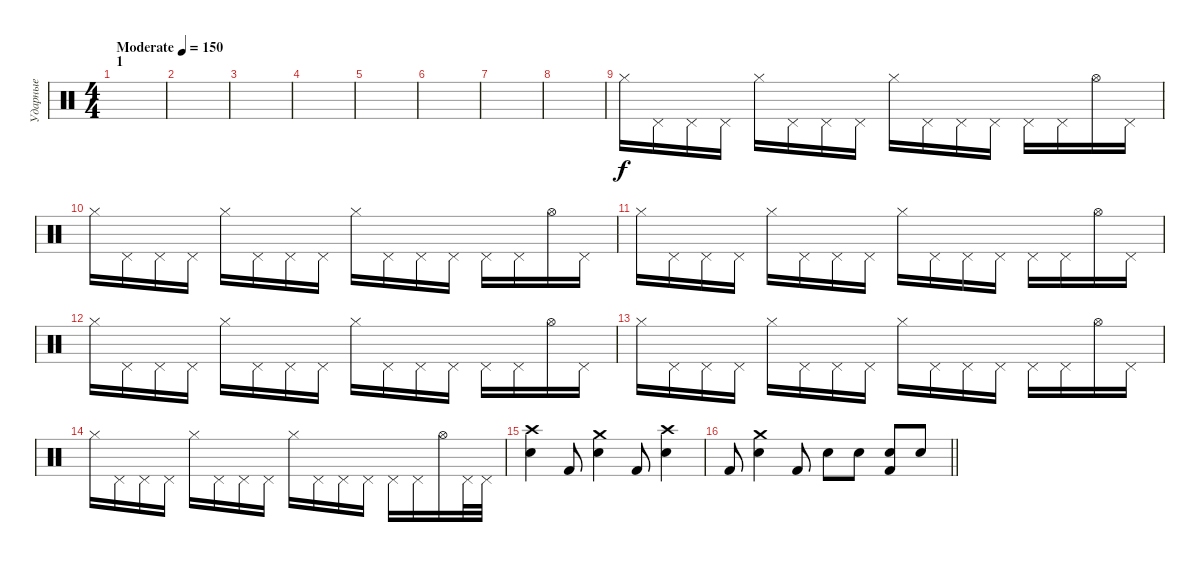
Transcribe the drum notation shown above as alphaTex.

\track ("Ударные" "Ударные") {instrument percussion}
\staff {score}
\articulation defaults
\ts (4 4)
\section ("" "1")
\tempo (150 "Moderate")
\clef neutral
\ks c
|
|
|
|
|
|
|
|
"Hi-Hat (closed)".16 "Pedal Hi-Hat (hit)".16 "Pedal Hi-Hat (hit)".16 "Pedal Hi-Hat (hit)".16 "Hi-Hat (closed)".16 "Pedal Hi-Hat (hit)".16 "Pedal Hi-Hat (hit)".16 "Pedal Hi-Hat (hit)".16 "Hi-Hat (closed)".16 "Pedal Hi-Hat (hit)".16 "Pedal Hi-Hat (hit)".16 "Pedal Hi-Hat (hit)".16 "Pedal Hi-Hat (hit)".16 "Pedal Hi-Hat (hit)".16 "Hi-Hat (open)".16 "Pedal Hi-Hat (hit)".16 |
"Hi-Hat (closed)".16 "Pedal Hi-Hat (hit)".16 "Pedal Hi-Hat (hit)".16 "Pedal Hi-Hat (hit)".16 "Hi-Hat (closed)".16 "Pedal Hi-Hat (hit)".16 "Pedal Hi-Hat (hit)".16 "Pedal Hi-Hat (hit)".16 "Hi-Hat (closed)".16 "Pedal Hi-Hat (hit)".16 "Pedal Hi-Hat (hit)".16 "Pedal Hi-Hat (hit)".16 "Pedal Hi-Hat (hit)".16 "Pedal Hi-Hat (hit)".16 "Hi-Hat (open)".16 "Pedal Hi-Hat (hit)".16 |
"Hi-Hat (closed)".16 "Pedal Hi-Hat (hit)".16 "Pedal Hi-Hat (hit)".16 "Pedal Hi-Hat (hit)".16 "Hi-Hat (closed)".16 "Pedal Hi-Hat (hit)".16 "Pedal Hi-Hat (hit)".16 "Pedal Hi-Hat (hit)".16 "Hi-Hat (closed)".16 "Pedal Hi-Hat (hit)".16 "Pedal Hi-Hat (hit)".16 "Pedal Hi-Hat (hit)".16 "Pedal Hi-Hat (hit)".16 "Pedal Hi-Hat (hit)".16 "Hi-Hat (open)".16 "Pedal Hi-Hat (hit)".16 |
"Hi-Hat (closed)".16 "Pedal Hi-Hat (hit)".16 "Pedal Hi-Hat (hit)".16 "Pedal Hi-Hat (hit)".16 "Hi-Hat (closed)".16 "Pedal Hi-Hat (hit)".16 "Pedal Hi-Hat (hit)".16 "Pedal Hi-Hat (hit)".16 "Hi-Hat (closed)".16 "Pedal Hi-Hat (hit)".16 "Pedal Hi-Hat (hit)".16 "Pedal Hi-Hat (hit)".16 "Pedal Hi-Hat (hit)".16 "Pedal Hi-Hat (hit)".16 "Hi-Hat (open)".16 "Pedal Hi-Hat (hit)".16 |
"Hi-Hat (closed)".16 "Pedal Hi-Hat (hit)".16 "Pedal Hi-Hat (hit)".16 "Pedal Hi-Hat (hit)".16 "Hi-Hat (closed)".16 "Pedal Hi-Hat (hit)".16 "Pedal Hi-Hat (hit)".16 "Pedal Hi-Hat (hit)".16 "Hi-Hat (closed)".16 "Pedal Hi-Hat (hit)".16 "Pedal Hi-Hat (hit)".16 "Pedal Hi-Hat (hit)".16 "Pedal Hi-Hat (hit)".16 "Pedal Hi-Hat (hit)".16 "Hi-Hat (open)".16 "Pedal Hi-Hat (hit)".16 |
"Hi-Hat (closed)".16 "Pedal Hi-Hat (hit)".16 "Pedal Hi-Hat (hit)".16 "Pedal Hi-Hat (hit)".16 "Hi-Hat (closed)".16 "Pedal Hi-Hat (hit)".16 "Pedal Hi-Hat (hit)".16 "Pedal Hi-Hat (hit)".16 "Hi-Hat (closed)".16 "Pedal Hi-Hat (hit)".16 "Pedal Hi-Hat (hit)".16 "Pedal Hi-Hat (hit)".16 "Pedal Hi-Hat (hit)".16 "Pedal Hi-Hat (hit)".16 "Hi-Hat (open)".16 "Pedal Hi-Hat (hit)".32 "Pedal Hi-Hat (hit)".32{dy f} |
("Crash high (hit)" "Electric Snare (hit)").4 "Kick (hit) 2".8 ("Crash medium (hit)" "Electric Snare (hit)").4 "Kick (hit) 2".8 ("Crash high (hit)" "Electric Snare (hit)").4 |
\barLineRight lightlight "Kick (hit) 2".8
("Crash medium (hit)" "Electric Snare (hit)").4 "Kick (hit) 2".8 "Snare (hit) 2".8 "Snare (hit) 2".8 ("Snare (hit) 2" "Kick (hit) 2").8 "Snare (hit) 2".8
